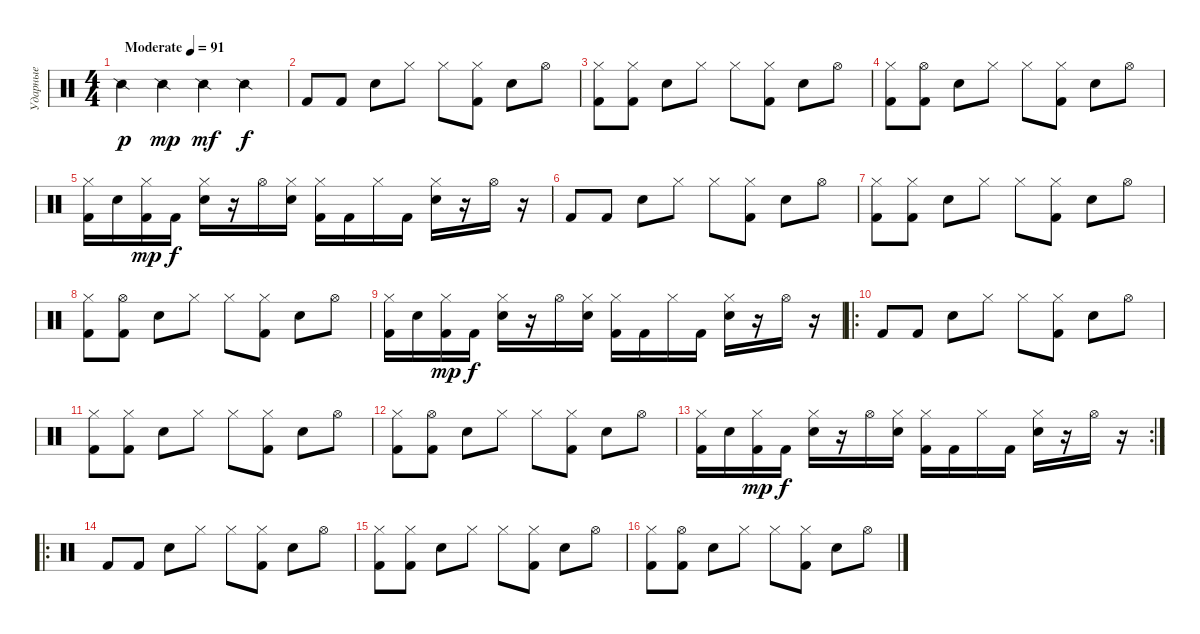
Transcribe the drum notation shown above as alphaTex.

\track ("Ударные" "Ударные") {instrument percussion}
\staff {score}
\articulation defaults
\ts (4 4)
\tempo (91 "Moderate")
\clef neutral
\ks c "Snare (side stick) 2".4{dy p} "Snare (side stick) 2".4{dy mp} "Snare (side stick) 2".4{dy mf} "Snare (side stick) 2".4{dy f}
|
"Kick (hit) 2".8 "Kick (hit) 2".8 "Snare (hit) 2".8 "Hi-Hat (closed)".8 "Hi-Hat (closed)".8 ("Hi-Hat (closed)" "Kick (hit) 2").8 "Snare (hit) 2".8 "Hi-Hat (open)".8 |
("Hi-Hat (closed)" "Kick (hit) 2").8 ("Hi-Hat (closed)" "Kick (hit) 2").8 "Snare (hit) 2".8 "Hi-Hat (closed)".8 "Hi-Hat (closed)".8 ("Hi-Hat (closed)" "Kick (hit) 2").8 "Snare (hit) 2".8 "Hi-Hat (open)".8 |
("Hi-Hat (closed)" "Kick (hit) 2").8 ("Hi-Hat (open)" "Kick (hit) 2").8 "Snare (hit) 2".8 "Hi-Hat (closed)".8 "Hi-Hat (closed)".8 ("Hi-Hat (closed)" "Kick (hit) 2").8 "Snare (hit) 2".8 "Hi-Hat (open)".8 |
("Hi-Hat (closed)" "Kick (hit) 2").16 "Snare (hit) 2".16 ("Hi-Hat (closed)" "Kick (hit) 2").16{dy mp} "Kick (hit) 2".16{dy f} ("Hi-Hat (closed)" "Snare (hit) 2").16 r.16 "Hi-Hat (open)".16 ("Hi-Hat (closed)" "Snare (hit) 2").16 ("Hi-Hat (closed)" "Kick (hit) 2").16 "Kick (hit) 2".16 "Hi-Hat (closed)".16 "Kick (hit) 2".16 ("Hi-Hat (closed)" "Snare (hit) 2").16 r.16 "Hi-Hat (open)".16 r.16 |
"Kick (hit) 2".8 "Kick (hit) 2".8 "Snare (hit) 2".8 "Hi-Hat (closed)".8 "Hi-Hat (closed)".8 ("Hi-Hat (closed)" "Kick (hit) 2").8 "Snare (hit) 2".8 "Hi-Hat (open)".8 |
("Hi-Hat (closed)" "Kick (hit) 2").8 ("Hi-Hat (closed)" "Kick (hit) 2").8 "Snare (hit) 2".8 "Hi-Hat (closed)".8 "Hi-Hat (closed)".8 ("Hi-Hat (closed)" "Kick (hit) 2").8 "Snare (hit) 2".8 "Hi-Hat (open)".8 |
("Hi-Hat (closed)" "Kick (hit) 2").8 ("Hi-Hat (open)" "Kick (hit) 2").8 "Snare (hit) 2".8 "Hi-Hat (closed)".8 "Hi-Hat (closed)".8 ("Hi-Hat (closed)" "Kick (hit) 2").8 "Snare (hit) 2".8 "Hi-Hat (open)".8 |
("Hi-Hat (closed)" "Kick (hit) 2").16 "Snare (hit) 2".16 ("Hi-Hat (closed)" "Kick (hit) 2").16{dy mp} "Kick (hit) 2".16{dy f} ("Hi-Hat (closed)" "Snare (hit) 2").16 r.16 "Hi-Hat (open)".16 ("Hi-Hat (closed)" "Snare (hit) 2").16 ("Hi-Hat (closed)" "Kick (hit) 2").16 "Kick (hit) 2".16 "Hi-Hat (closed)".16 "Kick (hit) 2".16 ("Hi-Hat (closed)" "Snare (hit) 2").16 r.16 "Hi-Hat (open)".16 r.16 |
\ro "Kick (hit) 2".8 "Kick (hit) 2".8 "Snare (hit) 2".8 "Hi-Hat (closed)".8 "Hi-Hat (closed)".8
("Hi-Hat (closed)" "Kick (hit) 2").8 "Snare (hit) 2".8 "Hi-Hat (open)".8 |
("Hi-Hat (closed)" "Kick (hit) 2").8 ("Hi-Hat (closed)" "Kick (hit) 2").8 "Snare (hit) 2".8 "Hi-Hat (closed)".8 "Hi-Hat (closed)".8 ("Hi-Hat (closed)" "Kick (hit) 2").8 "Snare (hit) 2".8 "Hi-Hat (open)".8 |
("Hi-Hat (closed)" "Kick (hit) 2").8 ("Hi-Hat (open)" "Kick (hit) 2").8 "Snare (hit) 2".8 "Hi-Hat (closed)".8 "Hi-Hat (closed)".8 ("Hi-Hat (closed)" "Kick (hit) 2").8 "Snare (hit) 2".8 "Hi-Hat (open)".8 |
\rc 2
("Hi-Hat (closed)" "Kick (hit) 2").16 "Snare (hit) 2".16 ("Hi-Hat (closed)" "Kick (hit) 2").16{dy mp} "Kick (hit) 2".16{dy f} ("Hi-Hat (closed)" "Snare (hit) 2").16 r.16 "Hi-Hat (open)".16 ("Hi-Hat (closed)" "Snare (hit) 2").16 ("Hi-Hat (closed)" "Kick (hit) 2").16 "Kick (hit) 2".16 "Hi-Hat (closed)".16 "Kick (hit) 2".16 ("Hi-Hat (closed)" "Snare (hit) 2").16 r.16 "Hi-Hat (open)".16 r.16 |
\ro "Kick (hit) 2".8 "Kick (hit) 2".8 "Snare (hit) 2".8 "Hi-Hat (closed)".8 "Hi-Hat (closed)".8
("Hi-Hat (closed)" "Kick (hit) 2").8 "Snare (hit) 2".8 "Hi-Hat (open)".8 |
("Hi-Hat (closed)" "Kick (hit) 2").8 ("Hi-Hat (closed)" "Kick (hit) 2").8 "Snare (hit) 2".8 "Hi-Hat (closed)".8 "Hi-Hat (closed)".8 ("Hi-Hat (closed)" "Kick (hit) 2").8 "Snare (hit) 2".8 "Hi-Hat (open)".8 |
("Hi-Hat (closed)" "Kick (hit) 2").8 ("Hi-Hat (open)" "Kick (hit) 2").8 "Snare (hit) 2".8 "Hi-Hat (closed)".8 "Hi-Hat (closed)".8 ("Hi-Hat (closed)" "Kick (hit) 2").8 "Snare (hit) 2".8 "Hi-Hat (open)".8
